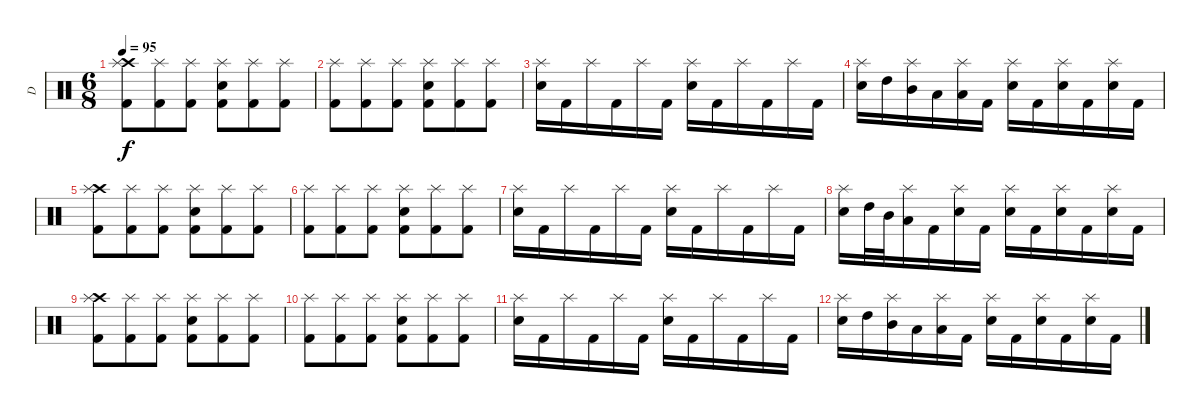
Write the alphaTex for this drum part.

\track ("D" "D") {instrument percussion}
\staff {score}
\articulation defaults
\ts (6 8)
\tempo 95
\clef neutral
\ks c
("Crash high (hit)" "Kick (hit) 2" "Splash (hit)").8{dy f} ("Kick (hit) 2" "Splash (hit)").8 ("Kick (hit) 2" "Splash (hit)").8 ("Electric Snare (hit)" "Kick (hit) 2" "Splash (hit)").8 ("Kick (hit) 2" "Splash (hit)").8 ("Kick (hit) 2" "Splash (hit)").8 |
("Kick (hit) 2" "Splash (hit)").8 ("Kick (hit) 2" "Splash (hit)").8 ("Kick (hit) 2" "Splash (hit)").8 ("Electric Snare (hit)" "Kick (hit) 2" "Splash (hit)").8 ("Kick (hit) 2" "Splash (hit)").8 ("Kick (hit) 2" "Splash (hit)").8 |
("Electric Snare (hit)" "Splash (hit)").16 "Kick (hit) 2".16 "Splash (hit)".16 "Kick (hit) 2".16 "Splash (hit)".16 "Kick (hit) 2".16 ("Electric Snare (hit)" "Splash (hit)").16 "Kick (hit) 2".16 "Splash (hit)".16 "Kick (hit) 2".16 "Splash (hit)".16 "Kick (hit) 2".16 |
("Electric Snare (hit)" "Splash (hit)").16 "High Tom (hit)".16 ("Mid Tom (hit)" "Splash (hit)").16 "Low Tom (hit)".16 ("Low Tom (hit)" "Splash (hit)").16 "Kick (hit) 2".16 ("Electric Snare (hit)" "Splash (hit)").16 "Kick (hit) 2".16 ("Electric Snare (hit)" "Splash (hit)").16 "Kick (hit) 2".16 ("Electric Snare (hit)" "Splash (hit)").16 "Kick (hit) 2".16 |
("Crash high (hit)" "Kick (hit) 2" "Splash (hit)").8 ("Kick (hit) 2" "Splash (hit)").8 ("Kick (hit) 2" "Splash (hit)").8 ("Electric Snare (hit)" "Kick (hit) 2" "Splash (hit)").8 ("Kick (hit) 2" "Splash (hit)").8 ("Kick (hit) 2" "Splash (hit)").8 |
("Kick (hit) 2" "Splash (hit)").8 ("Kick (hit) 2" "Splash (hit)").8 ("Kick (hit) 2" "Splash (hit)").8 ("Electric Snare (hit)" "Kick (hit) 2" "Splash (hit)").8 ("Kick (hit) 2" "Splash (hit)").8 ("Kick (hit) 2" "Splash (hit)").8 |
("Electric Snare (hit)" "Splash (hit)").16 "Kick (hit) 2".16 "Splash (hit)".16 "Kick (hit) 2".16 "Splash (hit)".16 "Kick (hit) 2".16 ("Electric Snare (hit)" "Splash (hit)").16 "Kick (hit) 2".16 "Splash (hit)".16 "Kick (hit) 2".16 "Splash (hit)".16 "Kick (hit) 2".16 |
("Electric Snare (hit)" "Splash (hit)").16 "High Tom (hit)".32 "Mid Tom (hit)".32 ("Low Tom (hit)" "Splash (hit)").16 "Kick (hit) 2".16 ("Electric Snare (hit)" "Splash (hit)").16 "Kick (hit) 2".16 ("Electric Snare (hit)" "Splash (hit)").16 "Kick (hit) 2".16 ("Electric Snare (hit)" "Splash (hit)").16 "Kick (hit) 2".16 ("Electric Snare (hit)" "Splash (hit)").16 "Kick (hit) 2".16 |
("Crash high (hit)" "Kick (hit) 2" "Splash (hit)").8 ("Kick (hit) 2" "Splash (hit)").8 ("Kick (hit) 2" "Splash (hit)").8 ("Electric Snare (hit)" "Kick (hit) 2" "Splash (hit)").8 ("Kick (hit) 2" "Splash (hit)").8 ("Kick (hit) 2" "Splash (hit)").8 |
("Kick (hit) 2" "Splash (hit)").8 ("Kick (hit) 2" "Splash (hit)").8 ("Kick (hit) 2" "Splash (hit)").8 ("Electric Snare (hit)" "Kick (hit) 2" "Splash (hit)").8 ("Kick (hit) 2" "Splash (hit)").8 ("Kick (hit) 2" "Splash (hit)").8 |
("Electric Snare (hit)" "Splash (hit)").16 "Kick (hit) 2".16 "Splash (hit)".16 "Kick (hit) 2".16 "Splash (hit)".16 "Kick (hit) 2".16 ("Electric Snare (hit)" "Splash (hit)").16 "Kick (hit) 2".16 "Splash (hit)".16 "Kick (hit) 2".16 "Splash (hit)".16 "Kick (hit) 2".16 |
("Electric Snare (hit)" "Splash (hit)").16 "High Tom (hit)".16 ("Mid Tom (hit)" "Splash (hit)").16 "Low Tom (hit)".16 ("Low Tom (hit)" "Splash (hit)").16 "Kick (hit) 2".16 ("Electric Snare (hit)" "Splash (hit)").16 "Kick (hit) 2".16 ("Electric Snare (hit)" "Splash (hit)").16 "Kick (hit) 2".16 ("Electric Snare (hit)" "Splash (hit)").16 "Kick (hit) 2".16
